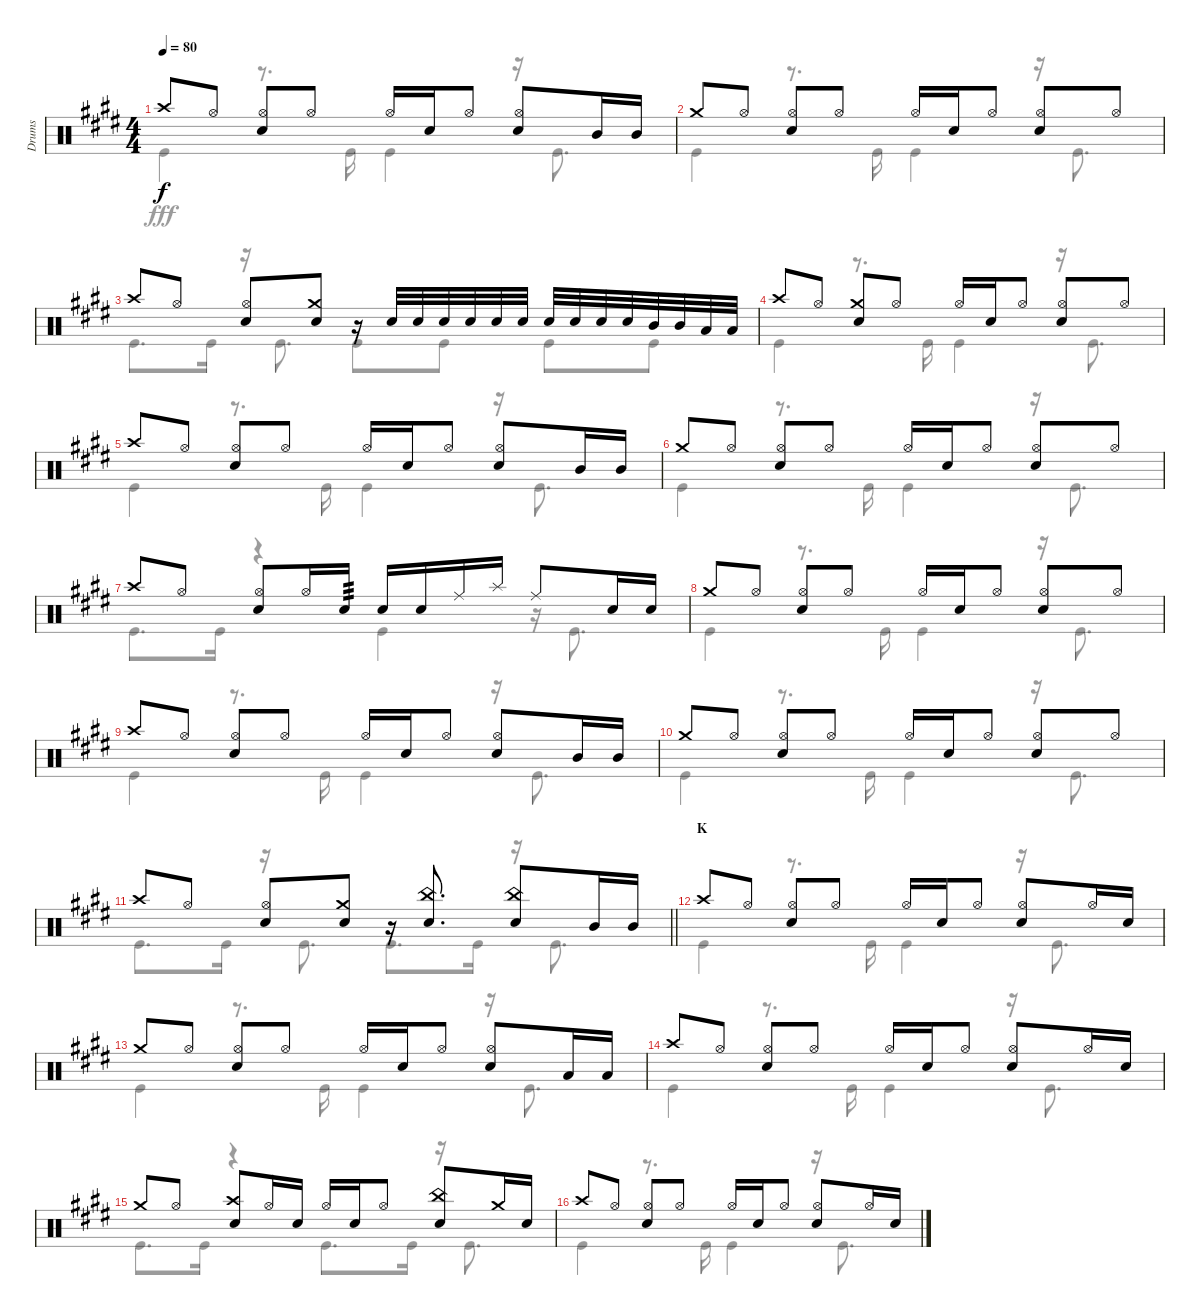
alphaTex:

\track ("Drums" "Drums") {instrument percussion}
\staff {score}
\articulation defaults
\voice
\ts (4 4)
\tempo 80
\clef neutral
\ks e "Crash high (hit)".8{dy f} "Hi-Hat (open)".8
("Hi-Hat (open)" "Snare (hit) 2").8 "Hi-Hat (open)".8 "Hi-Hat (open)".16 "Snare (hit) 2".16 "Hi-Hat (open)".8 ("Hi-Hat (open)" "Snare (hit) 2").8 "Mid Tom (hit)".16 "Mid Tom (hit)".16 |
"Crash medium (hit)".8 "Hi-Hat (open)".8 ("Hi-Hat (open)" "Snare (hit) 2").8 "Hi-Hat (open)".8 "Hi-Hat (open)".16 "Snare (hit) 2".16 "Hi-Hat (open)".8 ("Hi-Hat (open)" "Snare (hit) 2").8 "Hi-Hat (open)".8 |
"Crash high (hit)".8 "Hi-Hat (open)".8 ("Hi-Hat (open)" "Snare (hit) 2").8 ("Crash medium (hit)" "Snare (hit) 2").8 r.16 "Snare (hit) 2".32 "Snare (hit) 2".32 "Snare (hit) 2".32 "Snare (hit) 2".32 "Snare (hit) 2".32 "Snare (hit) 2".32 "Snare (hit) 2".32 "Snare (hit) 2".32 "Snare (hit) 2".32 "Snare (hit) 2".32 "Mid Tom (hit)".32 "Mid Tom (hit)".32 "Low Tom (hit)".32 "Low Tom (hit)".32 |
"Crash high (hit)".8 "Hi-Hat (open)".8 ("Crash medium (hit)" "Snare (hit) 2").8 "Hi-Hat (open)".8 "Hi-Hat (open)".16 "Snare (hit) 2".16 "Hi-Hat (open)".8 ("Hi-Hat (open)" "Snare (hit) 2").8 "Hi-Hat (open)".8 |
"Crash high (hit)".8 "Hi-Hat (open)".8 ("Hi-Hat (open)" "Snare (hit) 2").8 "Hi-Hat (open)".8 "Hi-Hat (open)".16 "Snare (hit) 2".16 "Hi-Hat (open)".8 ("Hi-Hat (open)" "Snare (hit) 2").8 "Mid Tom (hit)".16 "Mid Tom (hit)".16 |
"Crash medium (hit)".8 "Hi-Hat (open)".8 ("Hi-Hat (open)" "Snare (hit) 2").8 "Hi-Hat (open)".8 "Hi-Hat (open)".16 "Snare (hit) 2".16 "Hi-Hat (open)".8 ("Hi-Hat (open)" "Snare (hit) 2").8 "Hi-Hat (open)".8 |
"Crash high (hit)".8 "Hi-Hat (open)".8 ("Hi-Hat (open)" "Snare (hit) 2").8 "Hi-Hat (open)".16 "Snare (hit) 2".16{tp 3} "Snare (hit) 2".16 "Snare (hit) 2".16 "Ride (middle)".16 "Splash (hit)".16 "Ride (middle)".8 "Snare (hit) 2".16 "Snare (hit) 2".16 |
"Crash medium (hit)".8 "Hi-Hat (open)".8 ("Hi-Hat (open)" "Snare (hit) 2").8 "Hi-Hat (open)".8 "Hi-Hat (open)".16 "Snare (hit) 2".16 "Hi-Hat (open)".8 ("Hi-Hat (open)" "Snare (hit) 2").8 "Hi-Hat (open)".8 |
"Crash high (hit)".8 "Hi-Hat (open)".8 ("Hi-Hat (open)" "Snare (hit) 2").8 "Hi-Hat (open)".8 "Hi-Hat (open)".16 "Snare (hit) 2".16 "Hi-Hat (open)".8 ("Hi-Hat (open)" "Snare (hit) 2").8 "Mid Tom (hit)".16 "Mid Tom (hit)".16 |
"Crash medium (hit)".8 "Hi-Hat (open)".8 ("Hi-Hat (open)" "Snare (hit) 2").8 "Hi-Hat (open)".8 "Hi-Hat (open)".16 "Snare (hit) 2".16 "Hi-Hat (open)".8 ("Hi-Hat (open)" "Snare (hit) 2").8 "Hi-Hat (open)".8 |
\barLineRight lightlight "Crash high (hit)".8 "Hi-Hat (open)".8
("Hi-Hat (open)" "Snare (hit) 2").8 ("Crash medium (hit)" "Snare (hit) 2").8 r.16 ("China (hit)" "Snare (hit) 2").8{d} ("China (hit)" "Snare (hit) 2").8 "Mid Tom (hit)".16 "Mid Tom (hit)".16 |
\section ("" "K")
"Crash high (hit)".8 "Hi-Hat (open)".8 ("Hi-Hat (open)" "Snare (hit) 2").8 "Hi-Hat (open)".8 "Hi-Hat (open)".16 "Snare (hit) 2".16 "Hi-Hat (open)".8 ("Hi-Hat (open)" "Snare (hit) 2").8 "Hi-Hat (open)".16 "Snare (hit) 2".16 |
"Crash medium (hit)".8 "Hi-Hat (open)".8 ("Hi-Hat (open)" "Snare (hit) 2").8 "Hi-Hat (open)".8 "Hi-Hat (open)".16 "Snare (hit) 2".16 "Hi-Hat (open)".8 ("Hi-Hat (open)" "Snare (hit) 2").8 "Low Tom (hit)".16 "Low Tom (hit)".16 |
"Crash high (hit)".8 "Hi-Hat (open)".8 ("Hi-Hat (open)" "Snare (hit) 2").8 "Hi-Hat (open)".8 "Hi-Hat (open)".16 "Snare (hit) 2".16 "Hi-Hat (open)".8 ("Hi-Hat (open)" "Snare (hit) 2").8 "Hi-Hat (open)".16 "Snare (hit) 2".16 |
"Crash medium (hit)".8 "Hi-Hat (open)".8 ("Crash high (hit)" "Snare (hit) 2").8 "Hi-Hat (open)".16 "Snare (hit) 2".16 "Hi-Hat (open)".16 "Snare (hit) 2".16 "Hi-Hat (open)".8 ("China (hit)" "Snare (hit) 2").8 "Crash medium (hit)".16 "Snare (hit) 2".16 |
"Crash high (hit)".8 "Hi-Hat (open)".8 ("Hi-Hat (open)" "Snare (hit) 2").8 "Hi-Hat (open)".8 "Hi-Hat (open)".16 "Snare (hit) 2".16 "Hi-Hat (open)".8 ("Hi-Hat (open)" "Snare (hit) 2").8 "Hi-Hat (open)".16 "Snare (hit) 2".16
\voice
\clef neutral
\ottava regular
\simile none
\ks e "Kick (hit)".4{dy fff}
r.8{d} "Kick (hit)".16 "Kick (hit)".4 r.16 "Kick (hit)".8{d} |
"Kick (hit)".4 r.8{d} "Kick (hit)".16 "Kick (hit)".4 r.16 "Kick (hit)".8{d} |
"Kick (hit)".8{d} "Kick (hit)".16 r.16 "Kick (hit)".8{d} "Kick (hit)".8 "Kick (hit)".8 "Kick (hit)".8 "Kick (hit)".8 |
"Kick (hit)".4 r.8{d} "Kick (hit)".16 "Kick (hit)".4 r.16 "Kick (hit)".8{d} |
"Kick (hit)".4 r.8{d} "Kick (hit)".16 "Kick (hit)".4 r.16 "Kick (hit)".8{d} |
"Kick (hit)".4 r.8{d} "Kick (hit)".16 "Kick (hit)".4 r.16 "Kick (hit)".8{d} |
"Kick (hit)".8{d} "Kick (hit)".16 r.4 "Kick (hit)".4 r.16 "Kick (hit)".8{d} |
"Kick (hit)".4 r.8{d} "Kick (hit)".16 "Kick (hit)".4 r.16 "Kick (hit)".8{d} |
"Kick (hit)".4 r.8{d} "Kick (hit)".16 "Kick (hit)".4 r.16 "Kick (hit)".8{d} |
"Kick (hit)".4 r.8{d} "Kick (hit)".16 "Kick (hit)".4 r.16 "Kick (hit)".8{d} |
\barLineRight lightlight "Kick (hit)".8{d} "Kick (hit)".16
r.16 "Kick (hit)".8{d} "Kick (hit)".8{d} "Kick (hit)".16 r.16 "Kick (hit)".8{d} |
"Kick (hit)".4 r.8{d} "Kick (hit)".16 "Kick (hit)".4 r.16 "Kick (hit)".8{d} |
"Kick (hit)".4 r.8{d} "Kick (hit)".16 "Kick (hit)".4 r.16 "Kick (hit)".8{d} |
"Kick (hit)".4 r.8{d} "Kick (hit)".16 "Kick (hit)".4 r.16 "Kick (hit)".8{d} |
"Kick (hit)".8{d} "Kick (hit)".16 r.4 "Kick (hit)".8{d} "Kick (hit)".16 r.16 "Kick (hit)".8{d} |
"Kick (hit)".4 r.8{d} "Kick (hit)".16 "Kick (hit)".4 r.16 "Kick (hit)".8{d}
